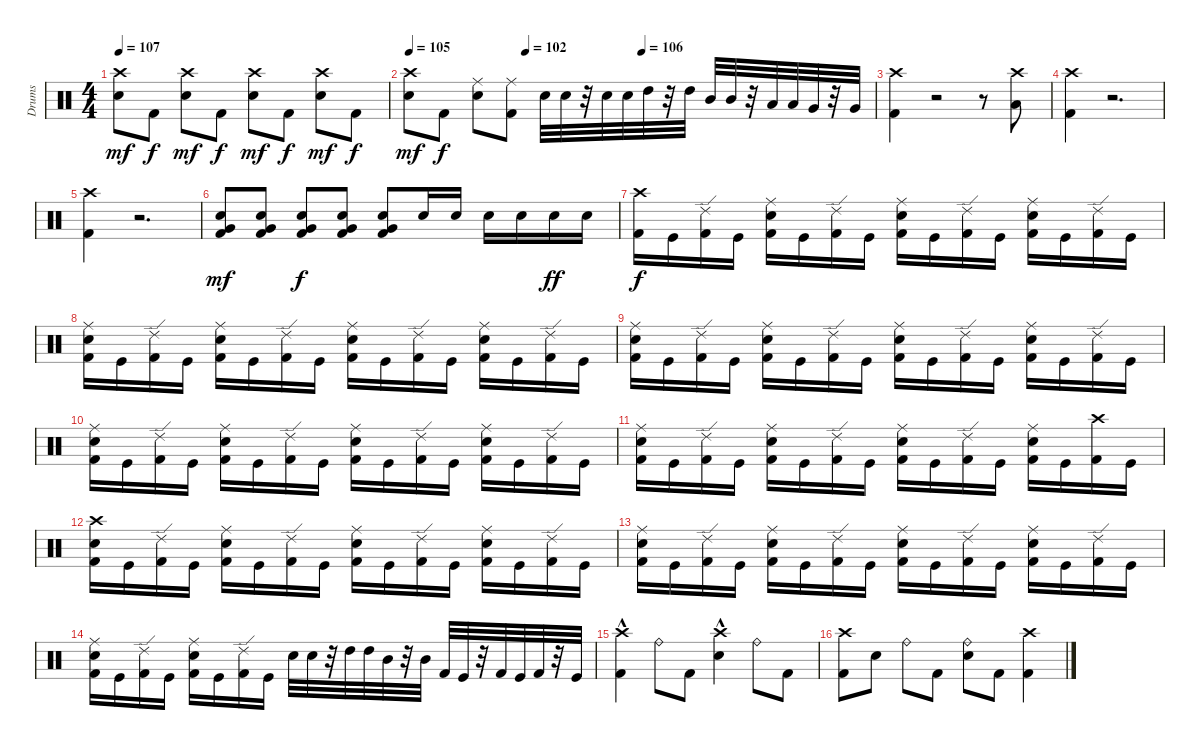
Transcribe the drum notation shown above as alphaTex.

\track ("Drums" "Drums") {instrument percussion}
\staff {score}
\articulation defaults
\ts (4 4)
\tempo 107
\clef neutral
\ks c
("Crash high (hit)" "Electric Snare (hit)").8{dy mf} "Kick (hit) 2".8{dy f} ("Crash high (hit)" "Electric Snare (hit)").8{dy mf} "Kick (hit) 2".8{dy f} ("Electric Snare (hit)" "Crash high (hit)").8{dy mf} "Kick (hit) 2".8{dy f} ("Crash high (hit)" "Electric Snare (hit)").8{dy mf} "Kick (hit) 2".8{dy f} |
\tempo 105
\tempo (102 0.25)
\tempo (106 0.5)
("Electric Snare (hit)" "Crash high (hit)").8{dy mf} "Kick (hit) 2".8{dy f} ("Electric Snare (hit)" "Ride (middle)").8 ("Ride (middle)" "Kick (hit) 2").8 "Electric Snare (hit)".32 "Electric Snare (hit)".32 r.32 "Electric Snare (hit)".32 "Electric Snare (hit)".32 "High Tom (hit)".32 r.32 "High Tom (hit)".32 "Mid Tom (hit)".32 "Mid Tom (hit)".32 r.32 "Low Tom (hit)".32 "Low Tom (hit)".32 "Very Low Tom (hit)".32 r.32 "Very Low Tom (hit)".32 |
("Kick (hit) 2" "Crash high (hit)").4 r.2 r.8 ("Low Floor Tom (hit)" "Crash high (hit)").8 |
("Crash high (hit)" "Kick (hit) 2").4 r.2{d} |
("Crash high (hit)" "Kick (hit) 2").4 r.2{d} |
("Very Low Tom (hit)" "Kick (hit) 2" "Electric Snare (hit)").8{dy mf} ("Kick (hit) 2" "Electric Snare (hit)" "Very Low Tom (hit)").8 ("Electric Snare (hit)" "Kick (hit) 2" "Very Low Tom (hit)").8{dy f} ("Kick (hit) 2" "Very Low Tom (hit)" "Electric Snare (hit)").8 ("Very Low Tom (hit)" "Kick (hit) 2" "Electric Snare (hit)").8 "Electric Snare (hit)".16 "Electric Snare (hit)".16 "Electric Snare (hit)".16 "Electric Snare (hit)".16 "Electric Snare (hit)".16{dy ff} "Electric Snare (hit)".16 |
("Kick (hit) 2" "Crash high (hit)").16{dy f} "Kick (hit)".16 ("Ride (edge) 2" "Kick (hit) 2").16 "Kick (hit)".16 ("Electric Snare (hit)" "Kick (hit) 2" "Ride (middle)").16 "Kick (hit)".16 ("Ride (edge) 2" "Kick (hit) 2").16 "Kick (hit)".16 ("Kick (hit) 2" "Ride (middle)" "Electric Snare (hit)").16 "Kick (hit)".16 ("Kick (hit) 2" "Ride (edge) 2").16 "Kick (hit)".16 ("Electric Snare (hit)" "Ride (middle)" "Kick (hit) 2").16 "Kick (hit)".16 ("Kick (hit) 2" "Ride (edge) 2").16 "Kick (hit)".16 |
("Ride (middle)" "Kick (hit) 2" "Electric Snare (hit)").16 "Kick (hit)".16 ("Ride (edge) 2" "Kick (hit) 2").16 "Kick (hit)".16 ("Ride (middle)" "Kick (hit) 2" "Electric Snare (hit)").16 "Kick (hit)".16 ("Kick (hit) 2" "Ride (edge) 2").16 "Kick (hit)".16 ("Electric Snare (hit)" "Kick (hit) 2" "Ride (middle)").16 "Kick (hit)".16 ("Kick (hit) 2" "Ride (edge) 2").16 "Kick (hit)".16 ("Kick (hit) 2" "Electric Snare (hit)" "Ride (middle)").16 "Kick (hit)".16 ("Kick (hit) 2" "Ride (edge) 2").16 "Kick (hit)".16 |
("Electric Snare (hit)" "Ride (middle)" "Kick (hit) 2").16 "Kick (hit)".16 ("Kick (hit) 2" "Ride (edge) 2").16 "Kick (hit)".16 ("Electric Snare (hit)" "Kick (hit) 2" "Ride (middle)").16 "Kick (hit)".16 ("Ride (edge) 2" "Kick (hit) 2").16 "Kick (hit)".16 ("Kick (hit) 2" "Electric Snare (hit)" "Ride (middle)").16 "Kick (hit)".16 ("Ride (edge) 2" "Kick (hit) 2").16 "Kick (hit)".16 ("Kick (hit) 2" "Ride (middle)" "Electric Snare (hit)").16 "Kick (hit)".16 ("Kick (hit) 2" "Ride (edge) 2").16 "Kick (hit)".16 |
("Electric Snare (hit)" "Ride (middle)" "Kick (hit) 2").16 "Kick (hit)".16 ("Ride (edge) 2" "Kick (hit) 2").16 "Kick (hit)".16 ("Kick (hit) 2" "Ride (middle)" "Electric Snare (hit)").16 "Kick (hit)".16 ("Ride (edge) 2" "Kick (hit) 2").16 "Kick (hit)".16 ("Electric Snare (hit)" "Ride (middle)" "Kick (hit) 2").16 "Kick (hit)".16 ("Kick (hit) 2" "Ride (edge) 2").16 "Kick (hit)".16 ("Electric Snare (hit)" "Ride (middle)" "Kick (hit) 2").16 "Kick (hit)".16 ("Kick (hit) 2" "Ride (edge) 2").16 "Kick (hit)".16 |
("Kick (hit) 2" "Electric Snare (hit)" "Ride (middle)").16 "Kick (hit)".16 ("Ride (edge) 2" "Kick (hit) 2").16 "Kick (hit)".16 ("Electric Snare (hit)" "Kick (hit) 2" "Ride (middle)").16 "Kick (hit)".16 ("Kick (hit) 2" "Ride (edge) 2").16 "Kick (hit)".16 ("Electric Snare (hit)" "Kick (hit) 2" "Ride (middle)").16 "Kick (hit)".16 ("Kick (hit) 2" "Ride (edge) 2").16 "Kick (hit)".16 ("Kick (hit) 2" "Electric Snare (hit)" "Ride (middle)").16 "Kick (hit)".16 ("Crash high (hit)" "Kick (hit) 2").16 "Kick (hit)".16 |
("Crash high (hit)" "Electric Snare (hit)" "Kick (hit) 2").16 "Kick (hit)".16 ("Ride (edge) 2" "Kick (hit) 2").16 "Kick (hit)".16 ("Kick (hit) 2" "Electric Snare (hit)" "Ride (middle)").16 "Kick (hit)".16 ("Kick (hit) 2" "Ride (edge) 2").16 "Kick (hit)".16 ("Ride (middle)" "Kick (hit) 2" "Electric Snare (hit)").16 "Kick (hit)".16 ("Kick (hit) 2" "Ride (edge) 2").16 "Kick (hit)".16 ("Electric Snare (hit)" "Kick (hit) 2" "Ride (middle)").16 "Kick (hit)".16 ("Kick (hit) 2" "Ride (edge) 2").16 "Kick (hit)".16 |
("Electric Snare (hit)" "Kick (hit) 2" "Ride (middle)").16 "Kick (hit)".16 ("Ride (edge) 2" "Kick (hit) 2").16 "Kick (hit)".16 ("Kick (hit) 2" "Ride (middle)" "Electric Snare (hit)").16 "Kick (hit)".16 ("Kick (hit) 2" "Ride (edge) 2").16 "Kick (hit)".16 ("Kick (hit) 2" "Electric Snare (hit)" "Ride (middle)").16 "Kick (hit)".16 ("Ride (edge) 2" "Kick (hit) 2").16 "Kick (hit)".16 ("Kick (hit) 2" "Ride (middle)" "Electric Snare (hit)").16 "Kick (hit)".16 ("Kick (hit) 2" "Ride (edge) 2").16 "Kick (hit)".16 |
("Kick (hit) 2" "Ride (middle)" "Electric Snare (hit)").16 "Kick (hit)".16 ("Ride (edge) 2" "Kick (hit) 2").16 "Kick (hit)".16 ("Kick (hit) 2" "Electric Snare (hit)" "Ride (middle)").16 "Kick (hit)".16 ("Kick (hit) 2" "Ride (edge) 2").16 "Kick (hit)".16 "Electric Snare (hit)".32 "Electric Snare (hit)".32 r.32 "High Tom (hit)".32 "High Tom (hit)".32 "Mid Tom (hit)".32 r.32 "Mid Tom (hit)".32 "Kick (hit) 2".32 "Kick (hit)".32 r.32 "Kick (hit) 2".32 "Kick (hit)".32 "Kick (hit) 2".32 r.32 "Kick (hit)".32 |
("Kick (hit) 2"{hac} "Crash high (hit)").4 "Ride (bell)".8 "Kick (hit) 2".8 ("Electric Snare (hit)"{hac} "Crash high (hit)").4 "Ride (bell)".8 "Kick (hit) 2".8 |
("Kick (hit) 2" "Crash high (hit)").8 "Electric Snare (hit)".8 "Ride (bell)".8 "Kick (hit) 2".8 ("Ride (bell)" "Electric Snare (hit)").8 "Kick (hit) 2".8 ("Kick (hit) 2" "Crash high (hit)").4
